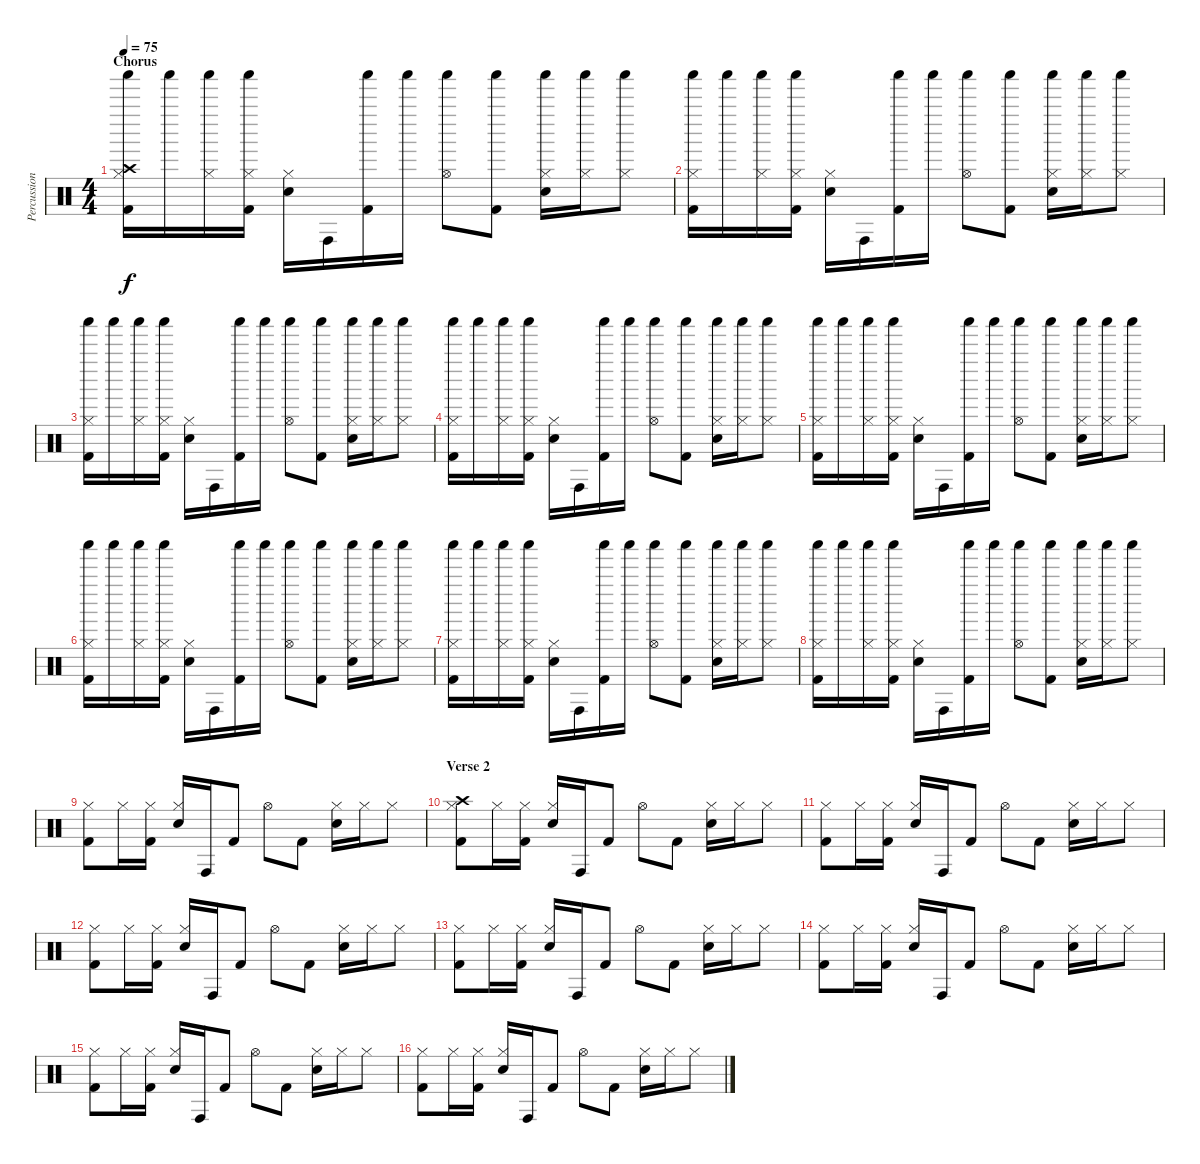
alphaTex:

\track ("Percussion" "Percussion") {instrument percussion}
\staff {score}
\articulation defaults
\ts (4 4)
\section ("" "Chorus")
\tempo 75
\clef neutral
\ks c
("Crash high (hit)" "Hi-Hat (closed)" "Shaker (hit)" "Kick (hit) 2").16{dy f} "Shaker (hit)".16 ("Hi-Hat (closed)" "Shaker (hit)").16 ("Hi-Hat (closed)" "Shaker (hit)" "Kick (hit) 2").16 ("Hi-Hat (closed)" "Electric Snare (hit)").16 "Conga high (hit)".16 ("Shaker (hit)" "Kick (hit) 2").16 "Shaker (hit)".16 ("Hi-Hat (open)" "Shaker (hit)").8 ("Shaker (hit)" "Kick (hit) 2").8 ("Hi-Hat (closed)" "Snare (hit) 2" "Shaker (hit)").16 ("Hi-Hat (closed)" "Shaker (hit)").16 ("Hi-Hat (closed)" "Shaker (hit)").8 |
("Hi-Hat (closed)" "Shaker (hit)" "Kick (hit) 2").16 "Shaker (hit)".16 ("Hi-Hat (closed)" "Shaker (hit)").16 ("Hi-Hat (closed)" "Shaker (hit)" "Kick (hit) 2").16 ("Hi-Hat (closed)" "Electric Snare (hit)").16 "Conga high (hit)".16 ("Shaker (hit)" "Kick (hit) 2").16 "Shaker (hit)".16 ("Hi-Hat (open)" "Shaker (hit)").8 ("Shaker (hit)" "Kick (hit) 2").8 ("Hi-Hat (closed)" "Snare (hit) 2" "Shaker (hit)").16 ("Hi-Hat (closed)" "Shaker (hit)").16 ("Hi-Hat (closed)" "Shaker (hit)").8 |
("Hi-Hat (closed)" "Shaker (hit)" "Kick (hit) 2").16 "Shaker (hit)".16 ("Hi-Hat (closed)" "Shaker (hit)").16 ("Hi-Hat (closed)" "Shaker (hit)" "Kick (hit) 2").16 ("Hi-Hat (closed)" "Electric Snare (hit)").16 "Conga high (hit)".16 ("Shaker (hit)" "Kick (hit) 2").16 "Shaker (hit)".16 ("Hi-Hat (open)" "Shaker (hit)").8 ("Shaker (hit)" "Kick (hit) 2").8 ("Hi-Hat (closed)" "Snare (hit) 2" "Shaker (hit)").16 ("Hi-Hat (closed)" "Shaker (hit)").16 ("Hi-Hat (closed)" "Shaker (hit)").8 |
("Hi-Hat (closed)" "Shaker (hit)" "Kick (hit) 2").16 "Shaker (hit)".16 ("Hi-Hat (closed)" "Shaker (hit)").16 ("Hi-Hat (closed)" "Shaker (hit)" "Kick (hit) 2").16 ("Hi-Hat (closed)" "Electric Snare (hit)").16 "Conga high (hit)".16 ("Shaker (hit)" "Kick (hit) 2").16 "Shaker (hit)".16 ("Hi-Hat (open)" "Shaker (hit)").8 ("Shaker (hit)" "Kick (hit) 2").8 ("Hi-Hat (closed)" "Snare (hit) 2" "Shaker (hit)").16 ("Hi-Hat (closed)" "Shaker (hit)").16 ("Hi-Hat (closed)" "Shaker (hit)").8 |
("Hi-Hat (closed)" "Shaker (hit)" "Kick (hit) 2").16 "Shaker (hit)".16 ("Hi-Hat (closed)" "Shaker (hit)").16 ("Hi-Hat (closed)" "Shaker (hit)" "Kick (hit) 2").16 ("Hi-Hat (closed)" "Electric Snare (hit)").16 "Conga high (hit)".16 ("Shaker (hit)" "Kick (hit) 2").16 "Shaker (hit)".16 ("Hi-Hat (open)" "Shaker (hit)").8 ("Shaker (hit)" "Kick (hit) 2").8 ("Hi-Hat (closed)" "Snare (hit) 2" "Shaker (hit)").16 ("Hi-Hat (closed)" "Shaker (hit)").16 ("Hi-Hat (closed)" "Shaker (hit)").8 |
("Hi-Hat (closed)" "Shaker (hit)" "Kick (hit) 2").16 "Shaker (hit)".16 ("Hi-Hat (closed)" "Shaker (hit)").16 ("Hi-Hat (closed)" "Shaker (hit)" "Kick (hit) 2").16 ("Hi-Hat (closed)" "Electric Snare (hit)").16 "Conga high (hit)".16 ("Shaker (hit)" "Kick (hit) 2").16 "Shaker (hit)".16 ("Hi-Hat (open)" "Shaker (hit)").8 ("Shaker (hit)" "Kick (hit) 2").8 ("Hi-Hat (closed)" "Snare (hit) 2" "Shaker (hit)").16 ("Hi-Hat (closed)" "Shaker (hit)").16 ("Hi-Hat (closed)" "Shaker (hit)").8 |
("Hi-Hat (closed)" "Shaker (hit)" "Kick (hit) 2").16 "Shaker (hit)".16 ("Hi-Hat (closed)" "Shaker (hit)").16 ("Hi-Hat (closed)" "Shaker (hit)" "Kick (hit) 2").16 ("Hi-Hat (closed)" "Electric Snare (hit)").16 "Conga high (hit)".16 ("Shaker (hit)" "Kick (hit) 2").16 "Shaker (hit)".16 ("Hi-Hat (open)" "Shaker (hit)").8 ("Shaker (hit)" "Kick (hit) 2").8 ("Hi-Hat (closed)" "Snare (hit) 2" "Shaker (hit)").16 ("Hi-Hat (closed)" "Shaker (hit)").16 ("Hi-Hat (closed)" "Shaker (hit)").8 |
("Hi-Hat (closed)" "Shaker (hit)" "Kick (hit) 2").16 "Shaker (hit)".16 ("Hi-Hat (closed)" "Shaker (hit)").16 ("Hi-Hat (closed)" "Shaker (hit)" "Kick (hit) 2").16 ("Hi-Hat (closed)" "Electric Snare (hit)").16 "Conga high (hit)".16 ("Shaker (hit)" "Kick (hit) 2").16 "Shaker (hit)".16 ("Hi-Hat (open)" "Shaker (hit)").8 ("Shaker (hit)" "Kick (hit) 2").8 ("Hi-Hat (closed)" "Snare (hit) 2" "Shaker (hit)").16 ("Hi-Hat (closed)" "Shaker (hit)").16 ("Hi-Hat (closed)" "Shaker (hit)").8 |
("Hi-Hat (closed)" "Kick (hit) 2").8 "Hi-Hat (closed)".16 ("Hi-Hat (closed)" "Kick (hit) 2").16 ("Hi-Hat (closed)" "Electric Snare (hit)").16 "Conga high (hit)".16 "Kick (hit) 2".8 "Hi-Hat (open)".8 "Kick (hit) 2".8 ("Hi-Hat (closed)" "Snare (hit) 2").16 "Hi-Hat (closed)".16 "Hi-Hat (closed)".8 |
\section ("" "Verse 2")
("Crash high (hit)" "Hi-Hat (closed)" "Kick (hit) 2").8 "Hi-Hat (closed)".16 ("Hi-Hat (closed)" "Kick (hit) 2").16 ("Hi-Hat (closed)" "Electric Snare (hit)").16 "Conga high (hit)".16 "Kick (hit) 2".8 "Hi-Hat (open)".8 "Kick (hit) 2".8 ("Hi-Hat (closed)" "Snare (hit) 2").16 "Hi-Hat (closed)".16 "Hi-Hat (closed)".8 |
("Hi-Hat (closed)" "Kick (hit) 2").8 "Hi-Hat (closed)".16 ("Hi-Hat (closed)" "Kick (hit) 2").16 ("Hi-Hat (closed)" "Electric Snare (hit)").16 "Conga high (hit)".16 "Kick (hit) 2".8 "Hi-Hat (open)".8 "Kick (hit) 2".8 ("Hi-Hat (closed)" "Snare (hit) 2").16 "Hi-Hat (closed)".16 "Hi-Hat (closed)".8 |
("Hi-Hat (closed)" "Kick (hit) 2").8 "Hi-Hat (closed)".16 ("Hi-Hat (closed)" "Kick (hit) 2").16 ("Hi-Hat (closed)" "Electric Snare (hit)").16 "Conga high (hit)".16 "Kick (hit) 2".8 "Hi-Hat (open)".8 "Kick (hit) 2".8 ("Hi-Hat (closed)" "Snare (hit) 2").16 "Hi-Hat (closed)".16 "Hi-Hat (closed)".8 |
("Hi-Hat (closed)" "Kick (hit) 2").8 "Hi-Hat (closed)".16 ("Hi-Hat (closed)" "Kick (hit) 2").16 ("Hi-Hat (closed)" "Electric Snare (hit)").16 "Conga high (hit)".16 "Kick (hit) 2".8 "Hi-Hat (open)".8 "Kick (hit) 2".8 ("Hi-Hat (closed)" "Snare (hit) 2").16 "Hi-Hat (closed)".16 "Hi-Hat (closed)".8 |
("Hi-Hat (closed)" "Kick (hit) 2").8 "Hi-Hat (closed)".16 ("Hi-Hat (closed)" "Kick (hit) 2").16 ("Hi-Hat (closed)" "Electric Snare (hit)").16 "Conga high (hit)".16 "Kick (hit) 2".8 "Hi-Hat (open)".8 "Kick (hit) 2".8 ("Hi-Hat (closed)" "Snare (hit) 2").16 "Hi-Hat (closed)".16 "Hi-Hat (closed)".8 |
("Hi-Hat (closed)" "Kick (hit) 2").8 "Hi-Hat (closed)".16 ("Hi-Hat (closed)" "Kick (hit) 2").16 ("Hi-Hat (closed)" "Electric Snare (hit)").16 "Conga high (hit)".16 "Kick (hit) 2".8 "Hi-Hat (open)".8 "Kick (hit) 2".8 ("Hi-Hat (closed)" "Snare (hit) 2").16 "Hi-Hat (closed)".16 "Hi-Hat (closed)".8 |
("Hi-Hat (closed)" "Kick (hit) 2").8 "Hi-Hat (closed)".16 ("Hi-Hat (closed)" "Kick (hit) 2").16 ("Hi-Hat (closed)" "Electric Snare (hit)").16 "Conga high (hit)".16 "Kick (hit) 2".8 "Hi-Hat (open)".8 "Kick (hit) 2".8 ("Hi-Hat (closed)" "Snare (hit) 2").16 "Hi-Hat (closed)".16 "Hi-Hat (closed)".8
